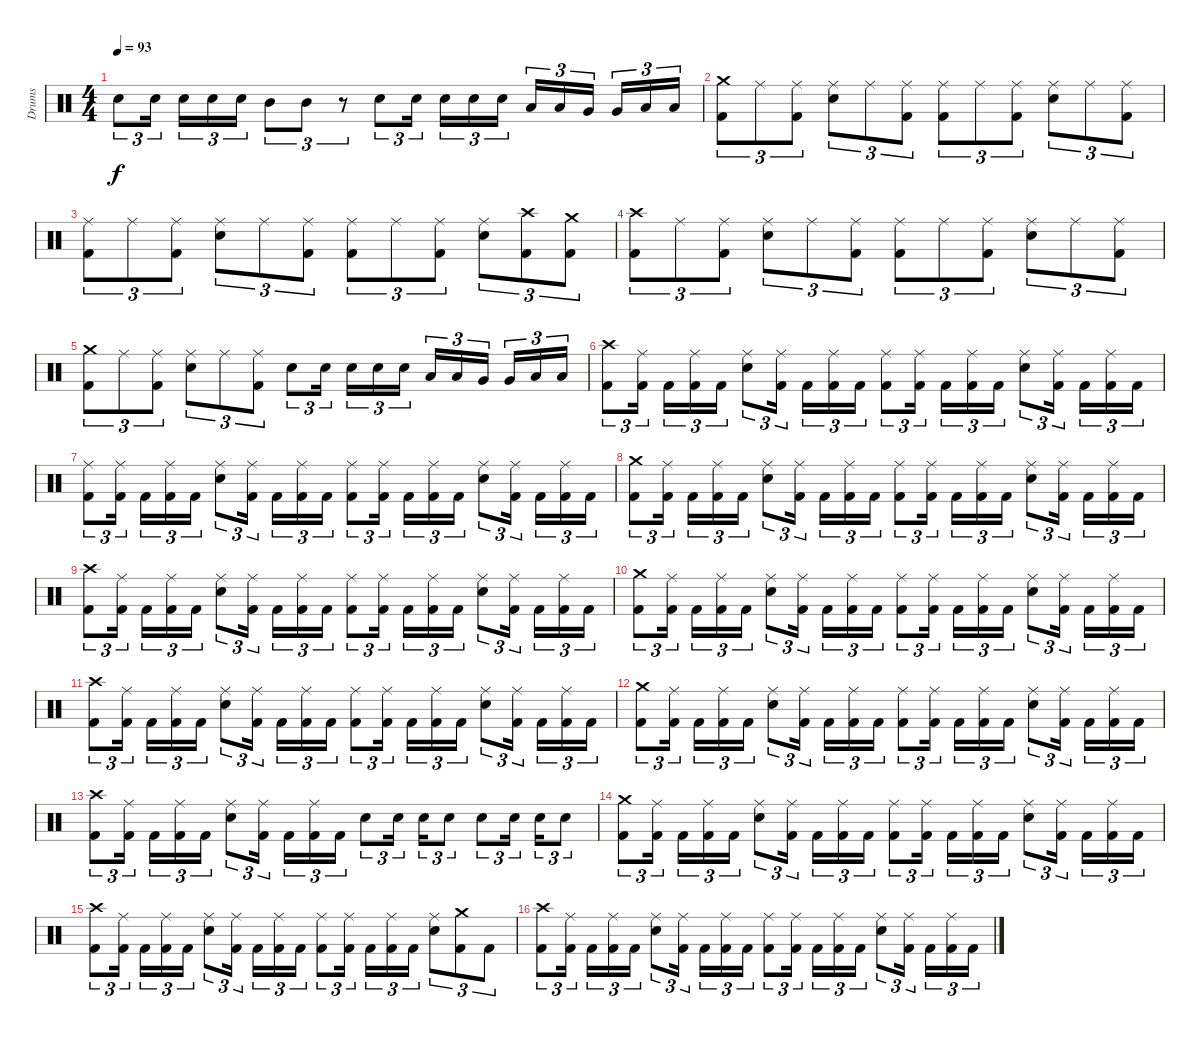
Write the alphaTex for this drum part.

\track ("Drums" "Drums") {instrument percussion}
\staff {score}
\articulation defaults
\ts (4 4)
\tempo 93
\clef neutral
\ks c "Snare (hit) 2".8{tu (3 2) dy f} "Snare (hit) 2".16{tu (3 2)} "Snare (hit) 2".16{tu (3 2)} "Snare (hit) 2".16{tu (3 2)} "Snare (hit) 2".16{tu (3 2)} "Mid Tom (hit)".8{tu (3 2)} "Mid Tom (hit)".8{tu (3 2)}
r.8{tu (3 2)} "Snare (hit) 2".8{tu (3 2)} "Snare (hit) 2".16{tu (3 2)} "Snare (hit) 2".16{tu (3 2)} "Snare (hit) 2".16{tu (3 2)} "Snare (hit) 2".16{tu (3 2)} "Low Tom (hit)".16{tu (3 2)} "Low Tom (hit)".16{tu (3 2)} "Very Low Tom (hit)".16{tu (3 2)} "Very Low Tom (hit)".16{tu (3 2)} "Low Floor Tom (hit)".16{tu (3 2)} "Low Floor Tom (hit)".16{tu (3 2)} |
("Crash medium (hit)" "Kick (hit) 2").8{tu (3 2)} "Ride (middle)".8{tu (3 2)} ("Ride (middle)" "Kick (hit) 2").8{tu (3 2)} ("Ride (middle)" "Snare (hit) 2").8{tu (3 2)} "Ride (middle)".8{tu (3 2)} ("Ride (middle)" "Kick (hit) 2").8{tu (3 2)} ("Ride (middle)" "Kick (hit) 2").8{tu (3 2)} "Ride (middle)".8{tu (3 2)} ("Ride (middle)" "Kick (hit) 2").8{tu (3 2)} ("Ride (middle)" "Snare (hit) 2").8{tu (3 2)} "Ride (middle)".8{tu (3 2)} ("Ride (middle)" "Kick (hit) 2").8{tu (3 2)} |
("Ride (middle)" "Kick (hit) 2").8{tu (3 2)} "Ride (middle)".8{tu (3 2)} ("Ride (middle)" "Kick (hit) 2").8{tu (3 2)} ("Ride (middle)" "Snare (hit) 2").8{tu (3 2)} "Ride (middle)".8{tu (3 2)} ("Ride (middle)" "Kick (hit) 2").8{tu (3 2)} ("Ride (middle)" "Kick (hit) 2").8{tu (3 2)} "Ride (middle)".8{tu (3 2)} ("Ride (middle)" "Kick (hit) 2").8{tu (3 2)} ("Ride (middle)" "Snare (hit) 2").8{tu (3 2)} ("Crash high (hit)" "Kick (hit) 2").8{tu (3 2)} ("Crash medium (hit)" "Kick (hit) 2").8{tu (3 2)} |
("Crash high (hit)" "Kick (hit) 2").8{tu (3 2)} "Ride (middle)".8{tu (3 2)} ("Ride (middle)" "Kick (hit) 2").8{tu (3 2)} ("Ride (middle)" "Snare (hit) 2").8{tu (3 2)} "Ride (middle)".8{tu (3 2)} ("Ride (middle)" "Kick (hit) 2").8{tu (3 2)} ("Ride (middle)" "Kick (hit) 2").8{tu (3 2)} "Ride (middle)".8{tu (3 2)} ("Ride (middle)" "Kick (hit) 2").8{tu (3 2)} ("Ride (middle)" "Snare (hit) 2").8{tu (3 2)} "Ride (middle)".8{tu (3 2)} ("Ride (middle)" "Kick (hit) 2").8{tu (3 2)} |
("Crash medium (hit)" "Kick (hit) 2").8{tu (3 2)} "Ride (middle)".8{tu (3 2)} ("Ride (middle)" "Kick (hit) 2").8{tu (3 2)} ("Ride (middle)" "Snare (hit) 2").8{tu (3 2)} "Ride (middle)".8{tu (3 2)} ("Ride (middle)" "Kick (hit) 2").8{tu (3 2)} "Snare (hit) 2".8{tu (3 2)} "Snare (hit) 2".16{tu (3 2)} "Snare (hit) 2".16{tu (3 2)} "Snare (hit) 2".16{tu (3 2)} "Snare (hit) 2".16{tu (3 2)} "Low Tom (hit)".16{tu (3 2)} "Low Tom (hit)".16{tu (3 2)} "Very Low Tom (hit)".16{tu (3 2)} "Very Low Tom (hit)".16{tu (3 2)} "Low Floor Tom (hit)".16{tu (3 2)} "Low Floor Tom (hit)".16{tu (3 2)} |
("Crash high (hit)" "Kick (hit) 2").8{tu (3 2)} ("Ride (middle)" "Kick (hit) 2").16{tu (3 2)} "Kick (hit) 2".16{tu (3 2)} ("Ride (middle)" "Kick (hit) 2").16{tu (3 2)} "Kick (hit) 2".16{tu (3 2)} ("Ride (middle)" "Snare (hit) 2").8{tu (3 2)} ("Ride (middle)" "Kick (hit) 2").16{tu (3 2)} "Kick (hit) 2".16{tu (3 2)} ("Ride (middle)" "Kick (hit) 2").16{tu (3 2)} "Kick (hit) 2".16{tu (3 2)} ("Ride (middle)" "Kick (hit) 2").8{tu (3 2)} ("Ride (middle)" "Kick (hit) 2").16{tu (3 2)} "Kick (hit) 2".16{tu (3 2)} ("Ride (middle)" "Kick (hit) 2").16{tu (3 2)} "Kick (hit) 2".16{tu (3 2)} ("Ride (middle)" "Snare (hit) 2").8{tu (3 2)} ("Ride (middle)" "Kick (hit) 2").16{tu (3 2)} "Kick (hit) 2".16{tu (3 2)} ("Ride (middle)" "Kick (hit) 2").16{tu (3 2)} "Kick (hit) 2".16{tu (3 2)} |
("Ride (middle)" "Kick (hit) 2").8{tu (3 2)} ("Ride (middle)" "Kick (hit) 2").16{tu (3 2)} "Kick (hit) 2".16{tu (3 2)} ("Ride (middle)" "Kick (hit) 2").16{tu (3 2)} "Kick (hit) 2".16{tu (3 2)} ("Ride (middle)" "Snare (hit) 2").8{tu (3 2)} ("Ride (middle)" "Kick (hit) 2").16{tu (3 2)} "Kick (hit) 2".16{tu (3 2)} ("Ride (middle)" "Kick (hit) 2").16{tu (3 2)} "Kick (hit) 2".16{tu (3 2)} ("Ride (middle)" "Kick (hit) 2").8{tu (3 2)} ("Ride (middle)" "Kick (hit) 2").16{tu (3 2)} "Kick (hit) 2".16{tu (3 2)} ("Ride (middle)" "Kick (hit) 2").16{tu (3 2)} "Kick (hit) 2".16{tu (3 2)} ("Ride (middle)" "Snare (hit) 2").8{tu (3 2)} ("Ride (middle)" "Kick (hit) 2").16{tu (3 2)} "Kick (hit) 2".16{tu (3 2)} ("Ride (middle)" "Kick (hit) 2").16{tu (3 2)} "Kick (hit) 2".16{tu (3 2)} |
("Crash medium (hit)" "Kick (hit) 2").8{tu (3 2)} ("Ride (middle)" "Kick (hit) 2").16{tu (3 2)} "Kick (hit) 2".16{tu (3 2)} ("Ride (middle)" "Kick (hit) 2").16{tu (3 2)} "Kick (hit) 2".16{tu (3 2)} ("Ride (middle)" "Snare (hit) 2").8{tu (3 2)} ("Ride (middle)" "Kick (hit) 2").16{tu (3 2)} "Kick (hit) 2".16{tu (3 2)} ("Ride (middle)" "Kick (hit) 2").16{tu (3 2)} "Kick (hit) 2".16{tu (3 2)} ("Ride (middle)" "Kick (hit) 2").8{tu (3 2)} ("Ride (middle)" "Kick (hit) 2").16{tu (3 2)} "Kick (hit) 2".16{tu (3 2)} ("Ride (middle)" "Kick (hit) 2").16{tu (3 2)} "Kick (hit) 2".16{tu (3 2)} ("Ride (middle)" "Snare (hit) 2").8{tu (3 2)} ("Ride (middle)" "Kick (hit) 2").16{tu (3 2)} "Kick (hit) 2".16{tu (3 2)} ("Ride (middle)" "Kick (hit) 2").16{tu (3 2)} "Kick (hit) 2".16{tu (3 2)} |
("Crash high (hit)" "Kick (hit) 2").8{tu (3 2)} ("Ride (middle)" "Kick (hit) 2").16{tu (3 2)} "Kick (hit) 2".16{tu (3 2)} ("Ride (middle)" "Kick (hit) 2").16{tu (3 2)} "Kick (hit) 2".16{tu (3 2)} ("Ride (middle)" "Snare (hit) 2").8{tu (3 2)} ("Ride (middle)" "Kick (hit) 2").16{tu (3 2)} "Kick (hit) 2".16{tu (3 2)} ("Ride (middle)" "Kick (hit) 2").16{tu (3 2)} "Kick (hit) 2".16{tu (3 2)} ("Ride (middle)" "Kick (hit) 2").8{tu (3 2)} ("Ride (middle)" "Kick (hit) 2").16{tu (3 2)} "Kick (hit) 2".16{tu (3 2)} ("Ride (middle)" "Kick (hit) 2").16{tu (3 2)} "Kick (hit) 2".16{tu (3 2)} ("Ride (middle)" "Snare (hit) 2").8{tu (3 2)} ("Ride (middle)" "Kick (hit) 2").16{tu (3 2)} "Kick (hit) 2".16{tu (3 2)} ("Ride (middle)" "Kick (hit) 2").16{tu (3 2)} "Kick (hit) 2".16{tu (3 2)} |
("Crash medium (hit)" "Kick (hit) 2").8{tu (3 2)} ("Ride (middle)" "Kick (hit) 2").16{tu (3 2)} "Kick (hit) 2".16{tu (3 2)} ("Ride (middle)" "Kick (hit) 2").16{tu (3 2)} "Kick (hit) 2".16{tu (3 2)} ("Ride (middle)" "Snare (hit) 2").8{tu (3 2)} ("Ride (middle)" "Kick (hit) 2").16{tu (3 2)} "Kick (hit) 2".16{tu (3 2)} ("Ride (middle)" "Kick (hit) 2").16{tu (3 2)} "Kick (hit) 2".16{tu (3 2)} ("Ride (middle)" "Kick (hit) 2").8{tu (3 2)} ("Ride (middle)" "Kick (hit) 2").16{tu (3 2)} "Kick (hit) 2".16{tu (3 2)} ("Ride (middle)" "Kick (hit) 2").16{tu (3 2)} "Kick (hit) 2".16{tu (3 2)} ("Ride (middle)" "Snare (hit) 2").8{tu (3 2)} ("Ride (middle)" "Kick (hit) 2").16{tu (3 2)} "Kick (hit) 2".16{tu (3 2)} ("Ride (middle)" "Kick (hit) 2").16{tu (3 2)} "Kick (hit) 2".16{tu (3 2)} |
("Crash high (hit)" "Kick (hit) 2").8{tu (3 2)} ("Ride (middle)" "Kick (hit) 2").16{tu (3 2)} "Kick (hit) 2".16{tu (3 2)} ("Ride (middle)" "Kick (hit) 2").16{tu (3 2)} "Kick (hit) 2".16{tu (3 2)} ("Ride (middle)" "Snare (hit) 2").8{tu (3 2)} ("Ride (middle)" "Kick (hit) 2").16{tu (3 2)} "Kick (hit) 2".16{tu (3 2)} ("Ride (middle)" "Kick (hit) 2").16{tu (3 2)} "Kick (hit) 2".16{tu (3 2)} ("Ride (middle)" "Kick (hit) 2").8{tu (3 2)} ("Ride (middle)" "Kick (hit) 2").16{tu (3 2)} "Kick (hit) 2".16{tu (3 2)} ("Ride (middle)" "Kick (hit) 2").16{tu (3 2)} "Kick (hit) 2".16{tu (3 2)} ("Ride (middle)" "Snare (hit) 2").8{tu (3 2)} ("Ride (middle)" "Kick (hit) 2").16{tu (3 2)} "Kick (hit) 2".16{tu (3 2)} ("Ride (middle)" "Kick (hit) 2").16{tu (3 2)} "Kick (hit) 2".16{tu (3 2)} |
("Crash medium (hit)" "Kick (hit) 2").8{tu (3 2)} ("Ride (middle)" "Kick (hit) 2").16{tu (3 2)} "Kick (hit) 2".16{tu (3 2)} ("Ride (middle)" "Kick (hit) 2").16{tu (3 2)} "Kick (hit) 2".16{tu (3 2)} ("Ride (middle)" "Snare (hit) 2").8{tu (3 2)} ("Ride (middle)" "Kick (hit) 2").16{tu (3 2)} "Kick (hit) 2".16{tu (3 2)} ("Ride (middle)" "Kick (hit) 2").16{tu (3 2)} "Kick (hit) 2".16{tu (3 2)} ("Ride (middle)" "Kick (hit) 2").8{tu (3 2)} ("Ride (middle)" "Kick (hit) 2").16{tu (3 2)} "Kick (hit) 2".16{tu (3 2)} ("Ride (middle)" "Kick (hit) 2").16{tu (3 2)} "Kick (hit) 2".16{tu (3 2)} ("Ride (middle)" "Snare (hit) 2").8{tu (3 2)} ("Ride (middle)" "Kick (hit) 2").16{tu (3 2)} "Kick (hit) 2".16{tu (3 2)} ("Ride (middle)" "Kick (hit) 2").16{tu (3 2)} "Kick (hit) 2".16{tu (3 2)} |
("Crash high (hit)" "Kick (hit) 2").8{tu (3 2)} ("Ride (middle)" "Kick (hit) 2").16{tu (3 2)} "Kick (hit) 2".16{tu (3 2)} ("Ride (middle)" "Kick (hit) 2").16{tu (3 2)} "Kick (hit) 2".16{tu (3 2)} ("Ride (middle)" "Snare (hit) 2").8{tu (3 2)} ("Ride (middle)" "Kick (hit) 2").16{tu (3 2)} "Kick (hit) 2".16{tu (3 2)} ("Ride (middle)" "Kick (hit) 2").16{tu (3 2)} "Kick (hit) 2".16{tu (3 2)} "Snare (hit) 2".8{tu (3 2)} "Snare (hit) 2".16{tu (3 2)} "Snare (hit) 2".16{tu (3 2)} "Snare (hit) 2".8{tu (3 2)} "Snare (hit) 2".8{tu (3 2)} "Snare (hit) 2".16{tu (3 2)} "Snare (hit) 2".16{tu (3 2)} "Snare (hit) 2".8{tu (3 2)} |
("Crash medium (hit)" "Kick (hit) 2").8{tu (3 2)} ("Ride (middle)" "Kick (hit) 2").16{tu (3 2)} "Kick (hit) 2".16{tu (3 2)} ("Ride (middle)" "Kick (hit) 2").16{tu (3 2)} "Kick (hit) 2".16{tu (3 2)} ("Ride (middle)" "Snare (hit) 2").8{tu (3 2)} ("Ride (middle)" "Kick (hit) 2").16{tu (3 2)} "Kick (hit) 2".16{tu (3 2)} ("Ride (middle)" "Kick (hit) 2").16{tu (3 2)} "Kick (hit) 2".16{tu (3 2)} ("Ride (middle)" "Kick (hit) 2").8{tu (3 2)} ("Ride (middle)" "Kick (hit) 2").16{tu (3 2)} "Kick (hit) 2".16{tu (3 2)} ("Ride (middle)" "Kick (hit) 2").16{tu (3 2)} "Kick (hit) 2".16{tu (3 2)} ("Ride (middle)" "Snare (hit) 2").8{tu (3 2)} ("Ride (middle)" "Kick (hit) 2").16{tu (3 2)} "Kick (hit) 2".16{tu (3 2)} ("Ride (middle)" "Kick (hit) 2").16{tu (3 2)} "Kick (hit) 2".16{tu (3 2)} |
("Crash high (hit)" "Kick (hit) 2").8{tu (3 2)} ("Ride (middle)" "Kick (hit) 2").16{tu (3 2)} "Kick (hit) 2".16{tu (3 2)} ("Ride (middle)" "Kick (hit) 2").16{tu (3 2)} "Kick (hit) 2".16{tu (3 2)} ("Ride (middle)" "Snare (hit) 2").8{tu (3 2)} ("Ride (middle)" "Kick (hit) 2").16{tu (3 2)} "Kick (hit) 2".16{tu (3 2)} ("Ride (middle)" "Kick (hit) 2").16{tu (3 2)} "Kick (hit) 2".16{tu (3 2)} ("Ride (middle)" "Kick (hit) 2").8{tu (3 2)} ("Ride (middle)" "Kick (hit) 2").16{tu (3 2)} "Kick (hit) 2".16{tu (3 2)} ("Ride (middle)" "Kick (hit) 2").16{tu (3 2)} "Kick (hit) 2".16{tu (3 2)} ("Ride (middle)" "Snare (hit) 2").8{tu (3 2)} ("Crash medium (hit)" "Kick (hit) 2").8{tu (3 2)} "Kick (hit) 2".8{tu (3 2)} |
("Crash high (hit)" "Kick (hit) 2").8{tu (3 2)} ("Ride (middle)" "Kick (hit) 2").16{tu (3 2)} "Kick (hit) 2".16{tu (3 2)} ("Ride (middle)" "Kick (hit) 2").16{tu (3 2)} "Kick (hit) 2".16{tu (3 2)} ("Ride (middle)" "Snare (hit) 2").8{tu (3 2)} ("Ride (middle)" "Kick (hit) 2").16{tu (3 2)} "Kick (hit) 2".16{tu (3 2)} ("Ride (middle)" "Kick (hit) 2").16{tu (3 2)} "Kick (hit) 2".16{tu (3 2)} ("Ride (middle)" "Kick (hit) 2").8{tu (3 2)} ("Ride (middle)" "Kick (hit) 2").16{tu (3 2)} "Kick (hit) 2".16{tu (3 2)} ("Ride (middle)" "Kick (hit) 2").16{tu (3 2)} "Kick (hit) 2".16{tu (3 2)} ("Ride (middle)" "Snare (hit) 2").8{tu (3 2)} ("Ride (middle)" "Kick (hit) 2").16{tu (3 2)} "Kick (hit) 2".16{tu (3 2)} ("Ride (middle)" "Kick (hit) 2").16{tu (3 2)} "Kick (hit) 2".16{tu (3 2)}
